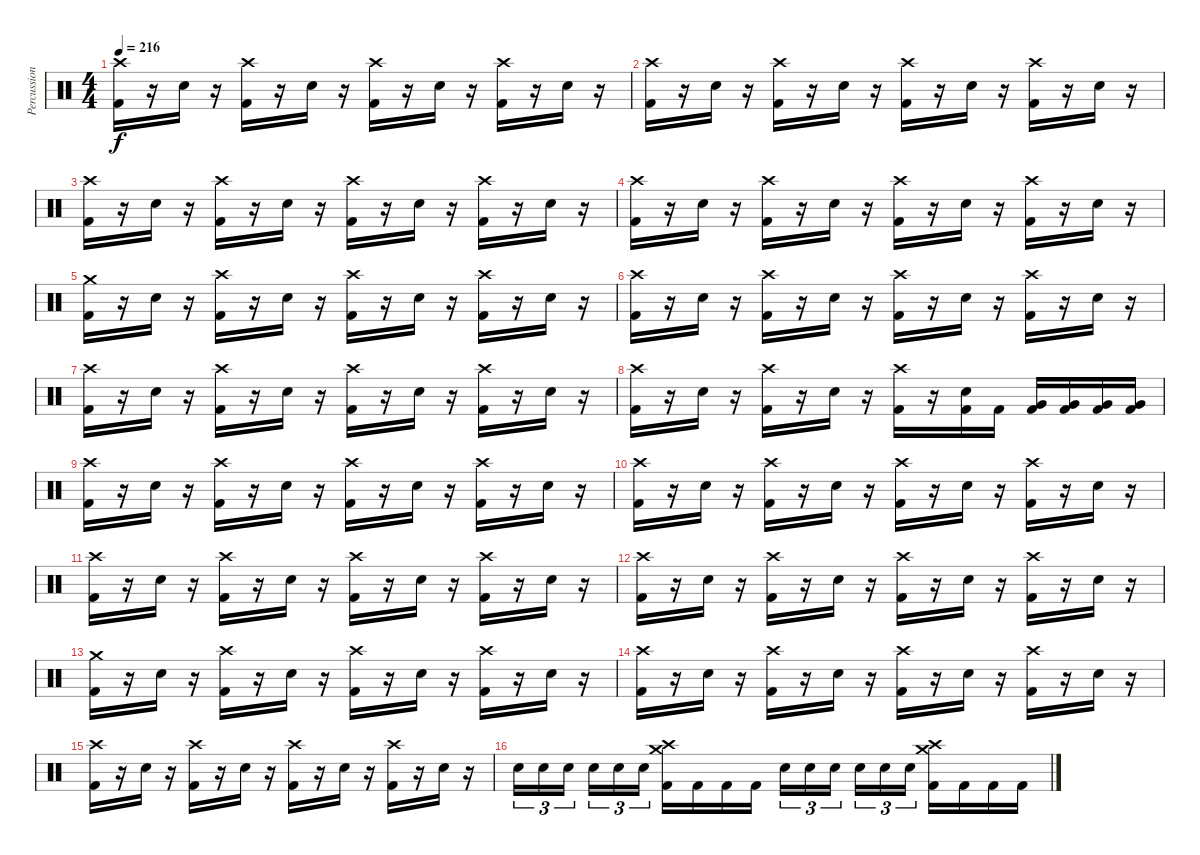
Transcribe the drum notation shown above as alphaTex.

\track ("Percussions" "Percussion") {instrument percussion}
\staff {score}
\articulation defaults
\ts (4 4)
\tempo 216
\clef neutral
\ks c
("Crash high (hit)" "Kick (hit) 2").16{dy f} r.16 "Electric Snare (hit)".16 r.16 ("Crash high (hit)" "Kick (hit) 2").16 r.16 "Electric Snare (hit)".16 r.16 ("Crash high (hit)" "Kick (hit) 2").16 r.16 "Electric Snare (hit)".16 r.16 ("Crash high (hit)" "Kick (hit) 2").16 r.16 "Electric Snare (hit)".16 r.16 |
("Crash high (hit)" "Kick (hit) 2").16 r.16 "Electric Snare (hit)".16 r.16 ("Crash high (hit)" "Kick (hit) 2").16 r.16 "Electric Snare (hit)".16 r.16 ("Crash high (hit)" "Kick (hit) 2").16 r.16 "Electric Snare (hit)".16 r.16 ("Crash high (hit)" "Kick (hit) 2").16 r.16 "Electric Snare (hit)".16 r.16 |
("Crash high (hit)" "Kick (hit) 2").16 r.16 "Electric Snare (hit)".16 r.16 ("Crash high (hit)" "Kick (hit) 2").16 r.16 "Electric Snare (hit)".16 r.16 ("Crash high (hit)" "Kick (hit) 2").16 r.16 "Electric Snare (hit)".16 r.16 ("Crash high (hit)" "Kick (hit) 2").16 r.16 "Electric Snare (hit)".16 r.16 |
("Crash high (hit)" "Kick (hit) 2").16 r.16 "Electric Snare (hit)".16 r.16 ("Crash high (hit)" "Kick (hit) 2").16 r.16 "Electric Snare (hit)".16 r.16 ("Crash high (hit)" "Kick (hit) 2").16 r.16 "Electric Snare (hit)".16 r.16 ("Crash high (hit)" "Kick (hit) 2").16 r.16 "Electric Snare (hit)".16 r.16 |
("Crash medium (hit)" "Kick (hit) 2").16 r.16 "Electric Snare (hit)".16 r.16 ("Crash high (hit)" "Kick (hit) 2").16 r.16 "Electric Snare (hit)".16 r.16 ("Crash high (hit)" "Kick (hit) 2").16 r.16 "Electric Snare (hit)".16 r.16 ("Crash high (hit)" "Kick (hit) 2").16 r.16 "Electric Snare (hit)".16 r.16 |
("Crash high (hit)" "Kick (hit) 2").16 r.16 "Electric Snare (hit)".16 r.16 ("Crash high (hit)" "Kick (hit) 2").16 r.16 "Electric Snare (hit)".16 r.16 ("Crash high (hit)" "Kick (hit) 2").16 r.16 "Electric Snare (hit)".16 r.16 ("Crash high (hit)" "Kick (hit) 2").16 r.16 "Electric Snare (hit)".16 r.16 |
("Crash high (hit)" "Kick (hit) 2").16 r.16 "Electric Snare (hit)".16 r.16 ("Crash high (hit)" "Kick (hit) 2").16 r.16 "Electric Snare (hit)".16 r.16 ("Crash high (hit)" "Kick (hit) 2").16 r.16 "Electric Snare (hit)".16 r.16 ("Crash high (hit)" "Kick (hit) 2").16 r.16 "Electric Snare (hit)".16 r.16 |
("Crash high (hit)" "Kick (hit) 2").16 r.16 "Electric Snare (hit)".16 r.16 ("Crash high (hit)" "Kick (hit) 2").16 r.16 "Electric Snare (hit)".16 r.16 ("Crash high (hit)" "Kick (hit) 2").16 r.16 ("Electric Snare (hit)" "Kick (hit) 2").16 "Kick (hit) 2".16 ("Very Low Tom (hit)" "Kick (hit) 2").16 ("Very Low Tom (hit)" "Kick (hit) 2").16 ("Very Low Tom (hit)" "Kick (hit) 2").16 ("Very Low Tom (hit)" "Kick (hit) 2").16 |
("Crash high (hit)" "Kick (hit) 2").16 r.16 "Electric Snare (hit)".16 r.16 ("Crash high (hit)" "Kick (hit) 2").16 r.16 "Electric Snare (hit)".16 r.16 ("Crash high (hit)" "Kick (hit) 2").16 r.16 "Electric Snare (hit)".16 r.16 ("Crash high (hit)" "Kick (hit) 2").16 r.16 "Electric Snare (hit)".16 r.16 |
("Crash high (hit)" "Kick (hit) 2").16 r.16 "Electric Snare (hit)".16 r.16 ("Crash high (hit)" "Kick (hit) 2").16 r.16 "Electric Snare (hit)".16 r.16 ("Crash high (hit)" "Kick (hit) 2").16 r.16 "Electric Snare (hit)".16 r.16 ("Crash high (hit)" "Kick (hit) 2").16 r.16 "Electric Snare (hit)".16 r.16 |
("Crash high (hit)" "Kick (hit) 2").16 r.16 "Electric Snare (hit)".16 r.16 ("Crash high (hit)" "Kick (hit) 2").16 r.16 "Electric Snare (hit)".16 r.16 ("Crash high (hit)" "Kick (hit) 2").16 r.16 "Electric Snare (hit)".16 r.16 ("Crash high (hit)" "Kick (hit) 2").16 r.16 "Electric Snare (hit)".16 r.16 |
("Crash high (hit)" "Kick (hit) 2").16 r.16 "Electric Snare (hit)".16 r.16 ("Crash high (hit)" "Kick (hit) 2").16 r.16 "Electric Snare (hit)".16 r.16 ("Crash high (hit)" "Kick (hit) 2").16 r.16 "Electric Snare (hit)".16 r.16 ("Crash high (hit)" "Kick (hit) 2").16 r.16 "Electric Snare (hit)".16 r.16 |
("Crash medium (hit)" "Kick (hit) 2").16 r.16 "Electric Snare (hit)".16 r.16 ("Crash high (hit)" "Kick (hit) 2").16 r.16 "Electric Snare (hit)".16 r.16 ("Crash high (hit)" "Kick (hit) 2").16 r.16 "Electric Snare (hit)".16 r.16 ("Crash high (hit)" "Kick (hit) 2").16 r.16 "Electric Snare (hit)".16 r.16 |
("Crash high (hit)" "Kick (hit) 2").16 r.16 "Electric Snare (hit)".16 r.16 ("Crash high (hit)" "Kick (hit) 2").16 r.16 "Electric Snare (hit)".16 r.16 ("Crash high (hit)" "Kick (hit) 2").16 r.16 "Electric Snare (hit)".16 r.16 ("Crash high (hit)" "Kick (hit) 2").16 r.16 "Electric Snare (hit)".16 r.16 |
("Crash high (hit)" "Kick (hit) 2").16 r.16 "Electric Snare (hit)".16 r.16 ("Crash high (hit)" "Kick (hit) 2").16 r.16 "Electric Snare (hit)".16 r.16 ("Crash high (hit)" "Kick (hit) 2").16 r.16 "Electric Snare (hit)".16 r.16 ("Crash high (hit)" "Kick (hit) 2").16 r.16 "Electric Snare (hit)".16 r.16 |
"Electric Snare (hit)".16{tu (3 2)} "Electric Snare (hit)".16{tu (3 2)} "Electric Snare (hit)".16{tu (3 2) beam splitsecondary} "Electric Snare (hit)".16{tu (3 2)} "Electric Snare (hit)".16{tu (3 2)} "Electric Snare (hit)".16{tu (3 2)} ("Crash high (hit)" "Crash medium (hit)" "Kick (hit) 2").16 "Kick (hit) 2".16 "Kick (hit) 2".16 "Kick (hit) 2".16 "Electric Snare (hit)".16{tu (3 2)} "Electric Snare (hit)".16{tu (3 2)} "Electric Snare (hit)".16{tu (3 2) beam splitsecondary} "Electric Snare (hit)".16{tu (3 2)} "Electric Snare (hit)".16{tu (3 2)} "Electric Snare (hit)".16{tu (3 2)} ("Crash high (hit)" "Crash medium (hit)" "Kick (hit) 2").16 "Kick (hit) 2".16 "Kick (hit) 2".16 "Kick (hit) 2".16
